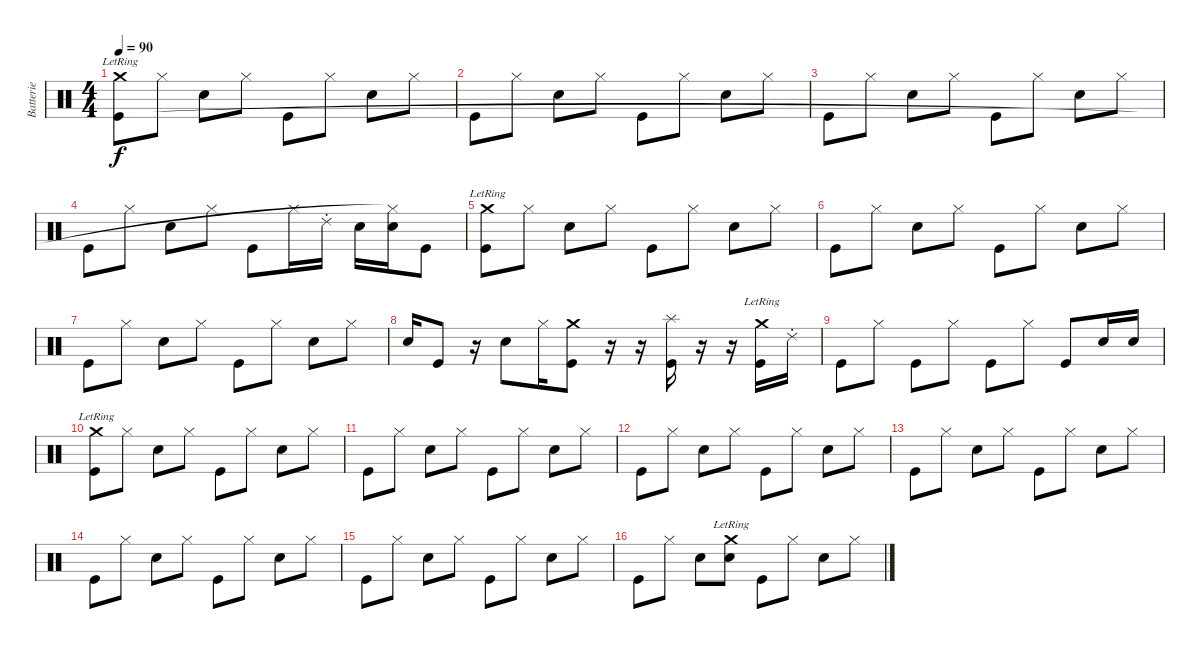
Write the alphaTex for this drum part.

\track ("Batterie" "Batterie") {instrument percussion}
\staff {score}
\articulation defaults
\ts (4 4)
\tempo 90
\clef neutral
\ks c
("Crash medium (hit)"{lr} "Kick (hit)").8{dy f} "Hi-Hat (closed)".8 "Metronome (bell)".8 "Hi-Hat (closed)".8 "Kick (hit)".8 "Hi-Hat (closed)".8 "Metronome (bell)".8 "Hi-Hat (closed)".8 |
"Kick (hit)".8 "Hi-Hat (closed)".8 "Metronome (bell)".8 "Hi-Hat (closed)".8 "Kick (hit)".8 "Hi-Hat (closed)".8 "Metronome (bell)".8 "Hi-Hat (closed)".8 |
"Kick (hit)".8 "Hi-Hat (closed)".8 "Metronome (bell)".8 "Hi-Hat (closed)".8 "Kick (hit)".8 "Hi-Hat (closed)".8 "Metronome (bell)".8 "Hi-Hat (closed)".8 |
"Kick (hit)".8 "Hi-Hat (closed)".8 "Metronome (bell)".8 "Hi-Hat (closed)".8 "Kick (hit)".8 "Hi-Hat (closed)".16 "Ride (choke) 2".16 "Metronome (bell)".16 ("Metronome (bell)" "Hi-Hat (closed)"{t}).16 "Kick (hit)".8 |
("Crash medium (hit)"{lr} "Kick (hit)").8 "Hi-Hat (closed)".8 "Metronome (bell)".8 "Hi-Hat (closed)".8 "Kick (hit)".8 "Hi-Hat (closed)".8 "Metronome (bell)".8 "Hi-Hat (closed)".8 |
"Kick (hit)".8 "Hi-Hat (closed)".8 "Metronome (bell)".8 "Hi-Hat (closed)".8 "Kick (hit)".8 "Hi-Hat (closed)".8 "Metronome (bell)".8 "Hi-Hat (closed)".8 |
"Kick (hit)".8 "Hi-Hat (closed)".8 "Metronome (bell)".8 "Hi-Hat (closed)".8 "Kick (hit)".8 "Hi-Hat (closed)".8 "Metronome (bell)".8 "Hi-Hat (closed)".8 |
"Metronome (bell)".16 "Kick (hit)".8 r.16 "Metronome (bell)".8 "Hi-Hat (closed)".16 ("Crash medium (hit)" "Kick (hit)").8 r.16 r.16 ("Splash (hit)" "Kick (hit)").16 r.16 r.16 ("Crash medium (hit)"{lr} "Kick (hit)").16 "Ride (choke) 2".16 |
"Kick (hit)".8 "Hi-Hat (closed)".8 "Kick (hit)".8 "Hi-Hat (closed)".8 "Kick (hit)".8 "Hi-Hat (closed)".8 "Kick (hit)".8 "Metronome (bell)".16 "Metronome (bell)".16 |
("Crash medium (hit)"{lr} "Kick (hit)").8 "Hi-Hat (closed)".8 "Metronome (bell)".8 "Hi-Hat (closed)".8 "Kick (hit)".8 "Hi-Hat (closed)".8 "Metronome (bell)".8 "Hi-Hat (closed)".8 |
"Kick (hit)".8 "Hi-Hat (closed)".8 "Metronome (bell)".8 "Hi-Hat (closed)".8 "Kick (hit)".8 "Hi-Hat (closed)".8 "Metronome (bell)".8 "Hi-Hat (closed)".8 |
"Kick (hit)".8 "Hi-Hat (closed)".8 "Metronome (bell)".8 "Hi-Hat (closed)".8 "Kick (hit)".8 "Hi-Hat (closed)".8 "Metronome (bell)".8 "Hi-Hat (closed)".8 |
"Kick (hit)".8 "Hi-Hat (closed)".8 "Metronome (bell)".8 "Hi-Hat (closed)".8 "Kick (hit)".8 "Hi-Hat (closed)".8 "Metronome (bell)".8 "Hi-Hat (closed)".8 |
"Kick (hit)".8 "Hi-Hat (closed)".8 "Metronome (bell)".8 "Hi-Hat (closed)".8 "Kick (hit)".8 "Hi-Hat (closed)".8 "Metronome (bell)".8 "Hi-Hat (closed)".8 |
"Kick (hit)".8 "Hi-Hat (closed)".8 "Metronome (bell)".8 "Hi-Hat (closed)".8 "Kick (hit)".8 "Hi-Hat (closed)".8 "Metronome (bell)".8 "Hi-Hat (closed)".8 |
"Kick (hit)".8 "Hi-Hat (closed)".8 "Metronome (bell)".8 ("Metronome (bell)" "Crash medium (hit)"{lr}).8 "Kick (hit)".8 "Hi-Hat (closed)".8 "Metronome (bell)".8 "Hi-Hat (closed)".8
